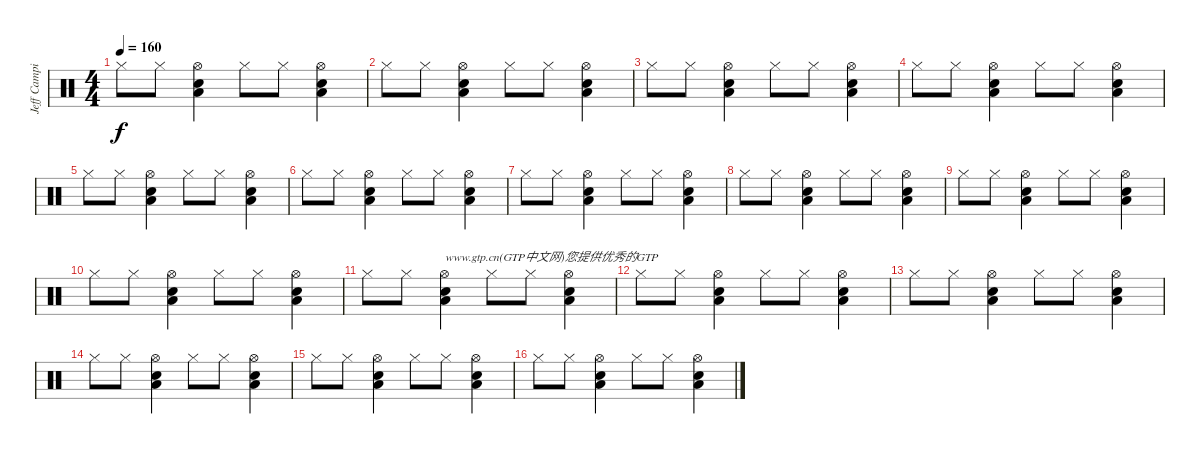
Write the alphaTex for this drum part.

\track ("Jeff Campitelli" "Jeff Campi") {instrument percussion}
\staff {score}
\articulation defaults
\ts (4 4)
\tempo 160
\clef neutral
\ks c "Hi-Hat (closed)".8{dy f} "Hi-Hat (closed)".8
("Low Floor Tom (hit)" "Snare (hit) 2" "Hi-Hat (open)").4 "Hi-Hat (closed)".8 "Hi-Hat (closed)".8 ("Low Floor Tom (hit)" "Snare (hit) 2" "Hi-Hat (open)").4 |
"Hi-Hat (closed)".8 "Hi-Hat (closed)".8 ("Low Floor Tom (hit)" "Snare (hit) 2" "Hi-Hat (open)").4 "Hi-Hat (closed)".8 "Hi-Hat (closed)".8 ("Low Floor Tom (hit)" "Snare (hit) 2" "Hi-Hat (open)").4 |
"Hi-Hat (closed)".8 "Hi-Hat (closed)".8 ("Low Floor Tom (hit)" "Snare (hit) 2" "Hi-Hat (open)").4 "Hi-Hat (closed)".8 "Hi-Hat (closed)".8 ("Low Floor Tom (hit)" "Snare (hit) 2" "Hi-Hat (open)").4 |
"Hi-Hat (closed)".8 "Hi-Hat (closed)".8 ("Low Floor Tom (hit)" "Snare (hit) 2" "Hi-Hat (open)").4 "Hi-Hat (closed)".8 "Hi-Hat (closed)".8 ("Low Floor Tom (hit)" "Snare (hit) 2" "Hi-Hat (open)").4 |
"Hi-Hat (closed)".8 "Hi-Hat (closed)".8 ("Low Floor Tom (hit)" "Snare (hit) 2" "Hi-Hat (open)").4 "Hi-Hat (closed)".8 "Hi-Hat (closed)".8 ("Low Floor Tom (hit)" "Snare (hit) 2" "Hi-Hat (open)").4 |
"Hi-Hat (closed)".8 "Hi-Hat (closed)".8 ("Low Floor Tom (hit)" "Snare (hit) 2" "Hi-Hat (open)").4 "Hi-Hat (closed)".8 "Hi-Hat (closed)".8 ("Low Floor Tom (hit)" "Snare (hit) 2" "Hi-Hat (open)").4 |
"Hi-Hat (closed)".8 "Hi-Hat (closed)".8 ("Low Floor Tom (hit)" "Snare (hit) 2" "Hi-Hat (open)").4 "Hi-Hat (closed)".8 "Hi-Hat (closed)".8 ("Low Floor Tom (hit)" "Snare (hit) 2" "Hi-Hat (open)").4 |
"Hi-Hat (closed)".8 "Hi-Hat (closed)".8 ("Low Floor Tom (hit)" "Snare (hit) 2" "Hi-Hat (open)").4 "Hi-Hat (closed)".8 "Hi-Hat (closed)".8 ("Low Floor Tom (hit)" "Snare (hit) 2" "Hi-Hat (open)").4 |
"Hi-Hat (closed)".8 "Hi-Hat (closed)".8 ("Low Floor Tom (hit)" "Snare (hit) 2" "Hi-Hat (open)").4 "Hi-Hat (closed)".8 "Hi-Hat (closed)".8 ("Low Floor Tom (hit)" "Snare (hit) 2" "Hi-Hat (open)").4 |
"Hi-Hat (closed)".8 "Hi-Hat (closed)".8 ("Low Floor Tom (hit)" "Snare (hit) 2" "Hi-Hat (open)").4 "Hi-Hat (closed)".8 "Hi-Hat (closed)".8 ("Low Floor Tom (hit)" "Snare (hit) 2" "Hi-Hat (open)").4 |
"Hi-Hat (closed)".8 "Hi-Hat (closed)".8 ("Low Floor Tom (hit)" "Snare (hit) 2" "Hi-Hat (open)").4{txt "www.gtp.cn(GTP中文网)您提供优秀的GTP"} "Hi-Hat (closed)".8 "Hi-Hat (closed)".8 ("Low Floor Tom (hit)" "Snare (hit) 2" "Hi-Hat (open)").4 |
"Hi-Hat (closed)".8 "Hi-Hat (closed)".8 ("Low Floor Tom (hit)" "Snare (hit) 2" "Hi-Hat (open)").4 "Hi-Hat (closed)".8 "Hi-Hat (closed)".8 ("Low Floor Tom (hit)" "Snare (hit) 2" "Hi-Hat (open)").4 |
"Hi-Hat (closed)".8 "Hi-Hat (closed)".8 ("Low Floor Tom (hit)" "Snare (hit) 2" "Hi-Hat (open)").4 "Hi-Hat (closed)".8 "Hi-Hat (closed)".8 ("Low Floor Tom (hit)" "Snare (hit) 2" "Hi-Hat (open)").4 |
"Hi-Hat (closed)".8 "Hi-Hat (closed)".8 ("Low Floor Tom (hit)" "Snare (hit) 2" "Hi-Hat (open)").4 "Hi-Hat (closed)".8 "Hi-Hat (closed)".8 ("Low Floor Tom (hit)" "Snare (hit) 2" "Hi-Hat (open)").4 |
"Hi-Hat (closed)".8 "Hi-Hat (closed)".8 ("Low Floor Tom (hit)" "Snare (hit) 2" "Hi-Hat (open)").4 "Hi-Hat (closed)".8 "Hi-Hat (closed)".8 ("Low Floor Tom (hit)" "Snare (hit) 2" "Hi-Hat (open)").4 |
"Hi-Hat (closed)".8 "Hi-Hat (closed)".8 ("Low Floor Tom (hit)" "Snare (hit) 2" "Hi-Hat (open)").4 "Hi-Hat (closed)".8 "Hi-Hat (closed)".8 ("Low Floor Tom (hit)" "Snare (hit) 2" "Hi-Hat (open)").4
